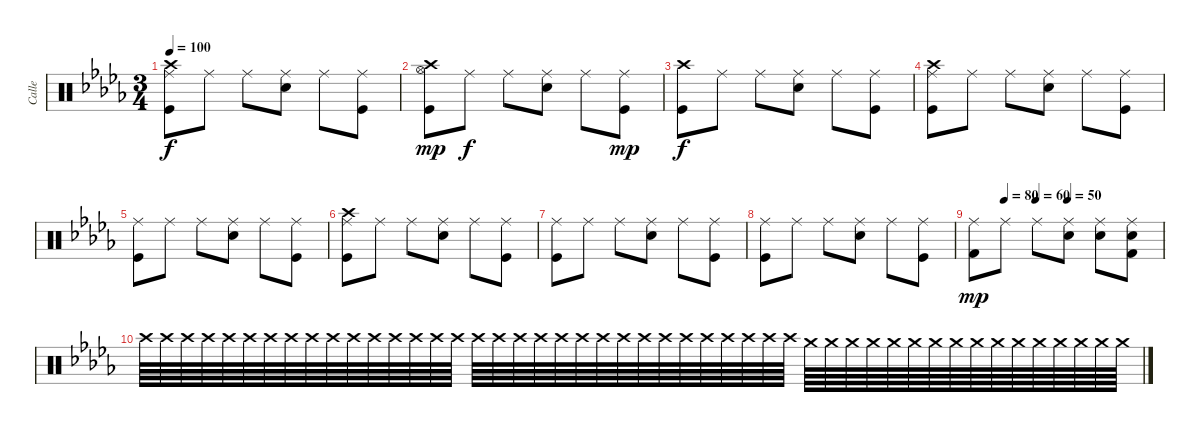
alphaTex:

\track ("Calle" "Calle") {instrument percussion}
\staff {score}
\articulation defaults
\ts (3 4)
\tempo 100
\clef neutral
\ks bbminor
("Crash high (hit)" "Ride (middle)" "Kick (hit)").8{dy f} "Ride (middle)".8 "Ride (middle)".8 ("Ride (middle)" "Electric Snare (hit)").8 "Ride (middle)".8 ("Ride (middle)" "Kick (hit)").8 |
("Crash high (hit)" "Hi-Hat (open)" "Kick (hit)").8{dy mp} "Ride (middle)".8{dy f} "Ride (middle)".8 ("Ride (middle)" "Electric Snare (hit)").8 "Ride (middle)".8 ("Ride (middle)" "Kick (hit)").8{dy mp} |
("Crash high (hit)" "Kick (hit)").8{dy f} "Ride (middle)".8 "Ride (middle)".8 ("Ride (middle)" "Electric Snare (hit)").8 "Ride (middle)".8 ("Ride (middle)" "Kick (hit)").8 |
("Crash high (hit)" "Ride (middle)" "Kick (hit)").8 "Ride (middle)".8 "Ride (middle)".8 ("Ride (middle)" "Electric Snare (hit)").8 "Ride (middle)".8 ("Ride (middle)" "Kick (hit)").8 |
("Ride (middle)" "Kick (hit)").8 "Ride (middle)".8 "Ride (middle)".8 ("Ride (middle)" "Electric Snare (hit)").8 "Ride (middle)".8 ("Ride (middle)" "Kick (hit)").8 |
("Crash high (hit)" "Ride (middle)" "Kick (hit)").8 "Ride (middle)".8 "Ride (middle)".8 ("Ride (middle)" "Electric Snare (hit)").8 "Ride (middle)".8 ("Ride (middle)" "Kick (hit)").8 |
("Ride (middle)" "Kick (hit)").8 "Ride (middle)".8 "Ride (middle)".8 ("Ride (middle)" "Electric Snare (hit)").8 "Ride (middle)".8 ("Ride (middle)" "Kick (hit)").8 |
("Ride (middle)" "Kick (hit)").8 "Ride (middle)".8 "Ride (middle)".8 ("Ride (middle)" "Electric Snare (hit)").8 "Ride (middle)".8 ("Ride (middle)" "Kick (hit)").8 |
\tempo (80 0.16666666666666666)
\tempo (60 0.3333333333333333)
\tempo (50 0.5)
("Ride (middle)" "Kick (hit) 2").8{dy mp} "Ride (middle)".8 "Ride (middle)".8 ("Ride (middle)" "Electric Snare (hit)").8 ("Ride (middle)" "Electric Snare (hit)").8 ("Ride (middle)" "Electric Snare (hit)" "Kick (hit) 2").8 |
"Crash high (hit)".64 "Crash high (hit)".64 "Crash high (hit)".64 "Crash high (hit)".64 "Crash high (hit)".64 "Crash high (hit)".64 "Crash high (hit)".64 "Crash high (hit)".64 "Crash high (hit)".64 "Crash high (hit)".64 "Crash high (hit)".64 "Crash high (hit)".64 "Crash high (hit)".64 "Crash high (hit)".64 "Crash high (hit)".64 "Crash high (hit)".64 "Crash high (hit)".64 "Crash high (hit)".64 "Crash high (hit)".64 "Crash high (hit)".64 "Crash high (hit)".64 "Crash high (hit)".64 "Crash high (hit)".64 "Crash high (hit)".64 "Crash high (hit)".64 "Crash high (hit)".64 "Crash high (hit)".64 "Crash high (hit)".64 "Crash high (hit)".64 "Crash high (hit)".64 "Crash high (hit)".64 "Crash high (hit)".64 "Crash medium (hit)".64 "Crash medium (hit)".64 "Crash medium (hit)".64 "Crash medium (hit)".64 "Crash medium (hit)".64 "Crash medium (hit)".64 "Crash medium (hit)".64 "Crash medium (hit)".64 "Crash medium (hit)".64 "Crash medium (hit)".64 "Crash medium (hit)".64 "Crash medium (hit)".64 "Crash medium (hit)".64 "Crash medium (hit)".64 "Crash medium (hit)".64 "Crash medium (hit)".64
